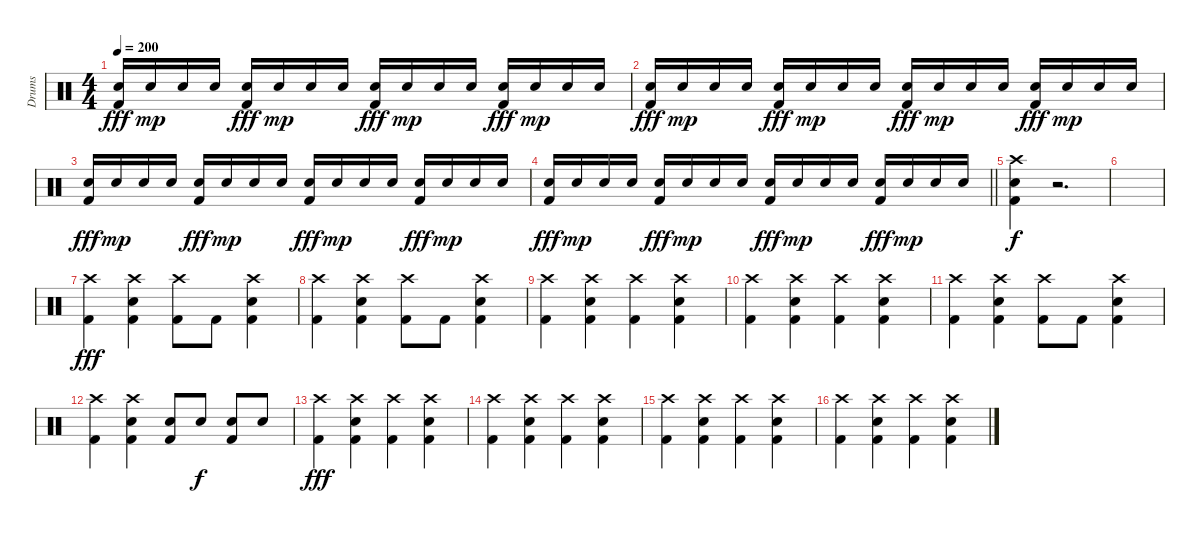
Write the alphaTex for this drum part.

\track ("Drums" "Drums") {instrument percussion}
\staff {score}
\articulation defaults
\ts (4 4)
\tempo 200
\clef neutral
\ks c
("Snare (hit) 2" "Kick (hit) 2").16{dy fff} "Snare (hit) 2".16{dy mp} "Snare (hit) 2".16 "Snare (hit) 2".16 ("Snare (hit) 2" "Kick (hit) 2").16{dy fff} "Snare (hit) 2".16{dy mp} "Snare (hit) 2".16 "Snare (hit) 2".16 ("Snare (hit) 2" "Kick (hit) 2").16{dy fff} "Snare (hit) 2".16{dy mp} "Snare (hit) 2".16 "Snare (hit) 2".16 ("Snare (hit) 2" "Kick (hit) 2").16{dy fff} "Snare (hit) 2".16{dy mp} "Snare (hit) 2".16 "Snare (hit) 2".16 |
("Snare (hit) 2" "Kick (hit) 2").16{dy fff} "Snare (hit) 2".16{dy mp} "Snare (hit) 2".16 "Snare (hit) 2".16 ("Snare (hit) 2" "Kick (hit) 2").16{dy fff} "Snare (hit) 2".16{dy mp} "Snare (hit) 2".16 "Snare (hit) 2".16 ("Snare (hit) 2" "Kick (hit) 2").16{dy fff} "Snare (hit) 2".16{dy mp} "Snare (hit) 2".16 "Snare (hit) 2".16 ("Snare (hit) 2" "Kick (hit) 2").16{dy fff} "Snare (hit) 2".16{dy mp} "Snare (hit) 2".16 "Snare (hit) 2".16 |
("Snare (hit) 2" "Kick (hit) 2").16{dy fff} "Snare (hit) 2".16{dy mp} "Snare (hit) 2".16 "Snare (hit) 2".16 ("Snare (hit) 2" "Kick (hit) 2").16{dy fff} "Snare (hit) 2".16{dy mp} "Snare (hit) 2".16 "Snare (hit) 2".16 ("Snare (hit) 2" "Kick (hit) 2").16{dy fff} "Snare (hit) 2".16{dy mp} "Snare (hit) 2".16 "Snare (hit) 2".16 ("Snare (hit) 2" "Kick (hit) 2").16{dy fff} "Snare (hit) 2".16{dy mp} "Snare (hit) 2".16 "Snare (hit) 2".16 |
\barLineRight lightlight
("Snare (hit) 2" "Kick (hit) 2").16{dy fff} "Snare (hit) 2".16{dy mp} "Snare (hit) 2".16 "Snare (hit) 2".16 ("Snare (hit) 2" "Kick (hit) 2").16{dy fff} "Snare (hit) 2".16{dy mp} "Snare (hit) 2".16 "Snare (hit) 2".16 ("Snare (hit) 2" "Kick (hit) 2").16{dy fff} "Snare (hit) 2".16{dy mp} "Snare (hit) 2".16 "Snare (hit) 2".16 ("Snare (hit) 2" "Kick (hit) 2").16{dy fff} "Snare (hit) 2".16{dy mp} "Snare (hit) 2".16 "Snare (hit) 2".16 |
("Crash high (hit)" "Snare (hit) 2" "Kick (hit) 2").4{dy f} r.2{d} |
|
("Crash high (hit)" "Kick (hit) 2").4{dy fff} ("Crash high (hit)" "Snare (hit) 2" "Kick (hit) 2").4 ("Crash high (hit)" "Kick (hit) 2").8 "Kick (hit) 2".8 ("Crash high (hit)" "Snare (hit) 2" "Kick (hit) 2").4 |
("Crash high (hit)" "Kick (hit) 2").4 ("Crash high (hit)" "Snare (hit) 2" "Kick (hit) 2").4 ("Crash high (hit)" "Kick (hit) 2").8 "Kick (hit) 2".8 ("Crash high (hit)" "Snare (hit) 2" "Kick (hit) 2").4 |
("Crash high (hit)" "Kick (hit) 2").4 ("Crash high (hit)" "Snare (hit) 2" "Kick (hit) 2").4 ("Crash high (hit)" "Kick (hit) 2").4 ("Crash high (hit)" "Snare (hit) 2" "Kick (hit) 2").4 |
("Crash high (hit)" "Kick (hit) 2").4 ("Crash high (hit)" "Snare (hit) 2" "Kick (hit) 2").4 ("Crash high (hit)" "Kick (hit) 2").4 ("Crash high (hit)" "Snare (hit) 2" "Kick (hit) 2").4 |
("Crash high (hit)" "Kick (hit) 2").4 ("Crash high (hit)" "Snare (hit) 2" "Kick (hit) 2").4 ("Crash high (hit)" "Kick (hit) 2").8 "Kick (hit) 2".8 ("Crash high (hit)" "Snare (hit) 2" "Kick (hit) 2").4 |
("Crash high (hit)" "Kick (hit) 2").4 ("Crash high (hit)" "Snare (hit) 2" "Kick (hit) 2").4 ("Snare (hit) 2" "Kick (hit) 2").8 "Snare (hit) 2".8{dy f} ("Snare (hit) 2" "Kick (hit) 2").8 "Snare (hit) 2".8 |
("Crash high (hit)" "Kick (hit) 2").4{dy fff} ("Crash high (hit)" "Snare (hit) 2" "Kick (hit) 2").4 ("Crash high (hit)" "Kick (hit) 2").4 ("Crash high (hit)" "Snare (hit) 2" "Kick (hit) 2").4 |
("Crash high (hit)" "Kick (hit) 2").4 ("Crash high (hit)" "Snare (hit) 2" "Kick (hit) 2").4 ("Crash high (hit)" "Kick (hit) 2").4 ("Crash high (hit)" "Snare (hit) 2" "Kick (hit) 2").4 |
("Crash high (hit)" "Kick (hit) 2").4 ("Crash high (hit)" "Snare (hit) 2" "Kick (hit) 2").4 ("Crash high (hit)" "Kick (hit) 2").4 ("Crash high (hit)" "Snare (hit) 2" "Kick (hit) 2").4 |
("Crash high (hit)" "Kick (hit) 2").4 ("Crash high (hit)" "Snare (hit) 2" "Kick (hit) 2").4 ("Crash high (hit)" "Kick (hit) 2").4 ("Crash high (hit)" "Snare (hit) 2" "Kick (hit) 2").4
